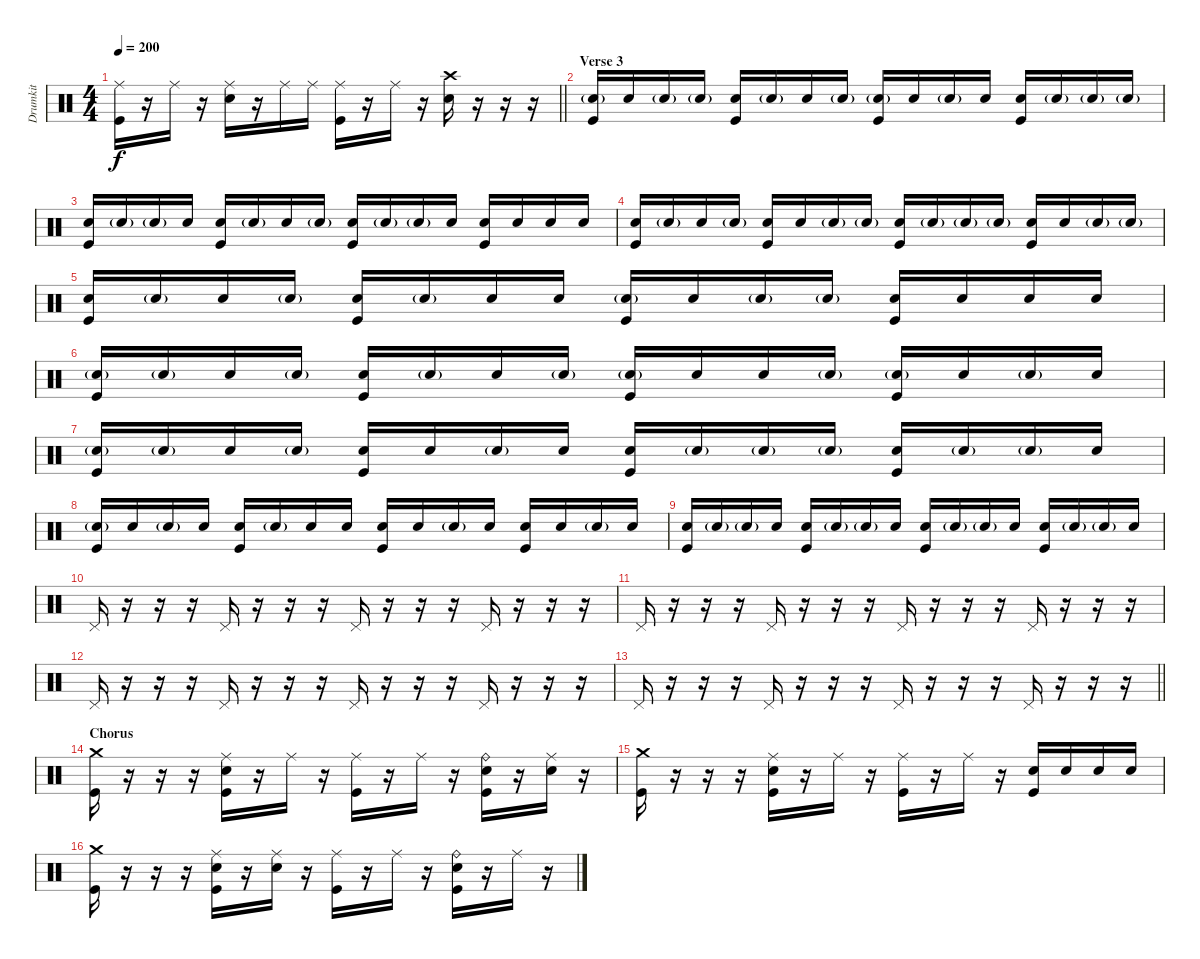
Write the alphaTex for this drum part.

\track ("Drumkit" "Drumkit") {instrument percussion}
\staff {score}
\articulation defaults
\ts (4 4)
\tempo 200
\clef neutral
\barLineRight lightlight
\ks c
("Ride (middle)" "Kick (hit)").16{dy f} r.16 "Ride (middle)".16 r.16 ("Ride (middle)" "Snare (hit) 2").16 r.16 "Ride (middle)".16 "Ride (middle)".16 ("Ride (middle)" "Kick (hit)").16 r.16 "Ride (middle)".16 r.16 ("Crash high (hit)" "Snare (hit) 2").16 r.16 r.16 r.16 |
\section ("" "Verse 3")
("Snare (hit) 2"{g} "Kick (hit)").16 "Snare (hit) 2".16 "Snare (hit) 2"{g}.16 "Snare (hit) 2"{g}.16 ("Snare (hit) 2" "Kick (hit)").16 "Snare (hit) 2"{g}.16 "Snare (hit) 2".16 "Snare (hit) 2"{g}.16 ("Snare (hit) 2"{g} "Kick (hit)").16 "Snare (hit) 2".16 "Snare (hit) 2"{g}.16 "Snare (hit) 2".16 ("Snare (hit) 2" "Kick (hit)").16 "Snare (hit) 2"{g}.16 "Snare (hit) 2"{g}.16 "Snare (hit) 2"{g}.16 |
("Snare (hit) 2" "Kick (hit)").16 "Snare (hit) 2"{g}.16 "Snare (hit) 2"{g}.16 "Snare (hit) 2".16 ("Snare (hit) 2" "Kick (hit)").16 "Snare (hit) 2"{g}.16 "Snare (hit) 2".16 "Snare (hit) 2"{g}.16 ("Snare (hit) 2" "Kick (hit)").16 "Snare (hit) 2"{g}.16 "Snare (hit) 2"{g}.16 "Snare (hit) 2".16 ("Snare (hit) 2" "Kick (hit)").16 "Snare (hit) 2".16 "Snare (hit) 2".16 "Snare (hit) 2".16 |
("Snare (hit) 2" "Kick (hit)").16 "Snare (hit) 2"{g}.16 "Snare (hit) 2".16 "Snare (hit) 2"{g}.16 ("Snare (hit) 2" "Kick (hit)").16 "Snare (hit) 2".16 "Snare (hit) 2"{g}.16 "Snare (hit) 2"{g}.16 ("Snare (hit) 2" "Kick (hit)").16 "Snare (hit) 2"{g}.16 "Snare (hit) 2"{g}.16 "Snare (hit) 2"{g}.16 ("Snare (hit) 2" "Kick (hit)").16 "Snare (hit) 2".16 "Snare (hit) 2"{g}.16 "Snare (hit) 2"{g}.16 |
("Snare (hit) 2" "Kick (hit)").16 "Snare (hit) 2"{g}.16 "Snare (hit) 2".16 "Snare (hit) 2"{g}.16 ("Snare (hit) 2" "Kick (hit)").16 "Snare (hit) 2"{g}.16 "Snare (hit) 2".16 "Snare (hit) 2".16 ("Snare (hit) 2"{g} "Kick (hit)").16 "Snare (hit) 2".16 "Snare (hit) 2"{g}.16 "Snare (hit) 2"{g}.16 ("Snare (hit) 2" "Kick (hit)").16 "Snare (hit) 2".16 "Snare (hit) 2".16 "Snare (hit) 2".16 |
("Snare (hit) 2"{g} "Kick (hit)").16 "Snare (hit) 2"{g}.16 "Snare (hit) 2".16 "Snare (hit) 2"{g}.16 ("Snare (hit) 2" "Kick (hit)").16 "Snare (hit) 2"{g}.16 "Snare (hit) 2".16 "Snare (hit) 2"{g}.16 ("Snare (hit) 2"{g} "Kick (hit)").16 "Snare (hit) 2".16 "Snare (hit) 2".16 "Snare (hit) 2"{g}.16 ("Snare (hit) 2"{g} "Kick (hit)").16 "Snare (hit) 2".16 "Snare (hit) 2"{g}.16 "Snare (hit) 2".16 |
("Snare (hit) 2"{g} "Kick (hit)").16 "Snare (hit) 2"{g}.16 "Snare (hit) 2".16 "Snare (hit) 2"{g}.16 ("Snare (hit) 2" "Kick (hit)").16 "Snare (hit) 2".16 "Snare (hit) 2"{g}.16 "Snare (hit) 2".16 ("Snare (hit) 2" "Kick (hit)").16 "Snare (hit) 2"{g}.16 "Snare (hit) 2"{g}.16 "Snare (hit) 2"{g}.16 ("Snare (hit) 2" "Kick (hit)").16 "Snare (hit) 2"{g}.16 "Snare (hit) 2"{g}.16 "Snare (hit) 2".16 |
("Snare (hit) 2"{g} "Kick (hit)").16 "Snare (hit) 2".16 "Snare (hit) 2"{g}.16 "Snare (hit) 2".16 ("Snare (hit) 2" "Kick (hit)").16 "Snare (hit) 2"{g}.16 "Snare (hit) 2".16 "Snare (hit) 2".16 ("Snare (hit) 2" "Kick (hit)").16 "Snare (hit) 2".16 "Snare (hit) 2"{g}.16 "Snare (hit) 2".16 ("Snare (hit) 2" "Kick (hit)").16 "Snare (hit) 2".16 "Snare (hit) 2"{g}.16 "Snare (hit) 2".16 |
("Snare (hit) 2" "Kick (hit)").16 "Snare (hit) 2"{g}.16 "Snare (hit) 2"{g}.16 "Snare (hit) 2".16 ("Snare (hit) 2" "Kick (hit)").16 "Snare (hit) 2"{g}.16 "Snare (hit) 2"{g}.16 "Snare (hit) 2".16 ("Snare (hit) 2" "Kick (hit)").16 "Snare (hit) 2"{g}.16 "Snare (hit) 2"{g}.16 "Snare (hit) 2".16 ("Snare (hit) 2" "Kick (hit)").16 "Snare (hit) 2"{g}.16 "Snare (hit) 2"{g}.16 "Snare (hit) 2".16 |
"Pedal Hi-Hat (hit)".16 r.16 r.16 r.16 "Pedal Hi-Hat (hit)".16 r.16 r.16 r.16 "Pedal Hi-Hat (hit)".16 r.16 r.16 r.16 "Pedal Hi-Hat (hit)".16 r.16 r.16 r.16 |
"Pedal Hi-Hat (hit)".16 r.16 r.16 r.16 "Pedal Hi-Hat (hit)".16 r.16 r.16 r.16 "Pedal Hi-Hat (hit)".16 r.16 r.16 r.16 "Pedal Hi-Hat (hit)".16 r.16 r.16 r.16 |
"Pedal Hi-Hat (hit)".16 r.16 r.16 r.16 "Pedal Hi-Hat (hit)".16 r.16 r.16 r.16 "Pedal Hi-Hat (hit)".16 r.16 r.16 r.16 "Pedal Hi-Hat (hit)".16 r.16 r.16 r.16 |
\barLineRight lightlight "Pedal Hi-Hat (hit)".16
r.16 r.16 r.16 "Pedal Hi-Hat (hit)".16 r.16 r.16 r.16 "Pedal Hi-Hat (hit)".16 r.16 r.16 r.16 "Pedal Hi-Hat (hit)".16 r.16 r.16 r.16 |
\section ("" "Chorus")
("Crash medium (hit)" "Kick (hit)").16 r.16 r.16 r.16 ("Ride (middle)" "Kick (hit)" "Snare (hit) 2").16 r.16 "Ride (middle)".16 r.16 ("Ride (middle)" "Kick (hit)").16 r.16 "Ride (middle)".16 r.16 ("Ride (bell)" "Kick (hit)" "Snare (hit) 2").16 r.16 ("Ride (middle)" "Snare (hit) 2").16 r.16 |
("Crash medium (hit)" "Kick (hit)").16 r.16 r.16 r.16 ("Ride (middle)" "Kick (hit)" "Snare (hit) 2").16 r.16 "Ride (middle)".16 r.16 ("Ride (middle)" "Kick (hit)").16 r.16 "Ride (middle)".16 r.16 ("Kick (hit)" "Snare (hit) 2").16 "Snare (hit) 2".16 "Snare (hit) 2".16 "Snare (hit) 2".16 |
("Crash medium (hit)" "Kick (hit)").16 r.16 r.16 r.16 ("Ride (middle)" "Kick (hit)" "Snare (hit) 2").16 r.16 ("Ride (middle)" "Snare (hit) 2").16 r.16 ("Ride (middle)" "Kick (hit)").16 r.16 "Ride (middle)".16 r.16 ("Ride (bell)" "Kick (hit)" "Snare (hit) 2").16 r.16 "Ride (middle)".16 r.16
